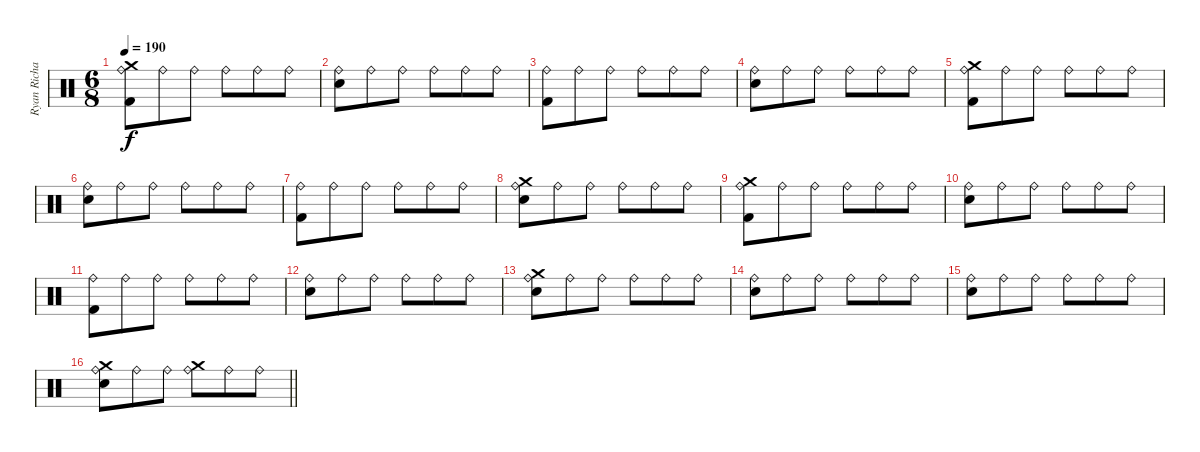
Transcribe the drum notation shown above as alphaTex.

\track ("Ryan Richards" "Ryan Richa") {instrument percussion bank 127}
\staff {score}
\articulation defaults
\ts (6 8)
\tempo 190
\clef neutral
\ks c
("Crash medium (hit)" "Ride (bell)" "Kick (hit) 2").8{dy f} "Ride (bell)".8 "Ride (bell)".8 "Ride (bell)".8 "Ride (bell)".8 "Ride (bell)".8 |
("Ride (bell)" "Snare (hit) 2").8 "Ride (bell)".8 "Ride (bell)".8 "Ride (bell)".8 "Ride (bell)".8 "Ride (bell)".8 |
("Ride (bell)" "Kick (hit) 2").8 "Ride (bell)".8 "Ride (bell)".8 "Ride (bell)".8 "Ride (bell)".8 "Ride (bell)".8 |
("Ride (bell)" "Snare (hit) 2").8 "Ride (bell)".8 "Ride (bell)".8 "Ride (bell)".8 "Ride (bell)".8 "Ride (bell)".8 |
("Crash medium (hit)" "Ride (bell)" "Kick (hit) 2").8 "Ride (bell)".8 "Ride (bell)".8 "Ride (bell)".8 "Ride (bell)".8 "Ride (bell)".8 |
("Ride (bell)" "Snare (hit) 2").8 "Ride (bell)".8 "Ride (bell)".8 "Ride (bell)".8 "Ride (bell)".8 "Ride (bell)".8 |
("Ride (bell)" "Kick (hit) 2").8 "Ride (bell)".8 "Ride (bell)".8 "Ride (bell)".8 "Ride (bell)".8 "Ride (bell)".8 |
("Crash medium (hit)" "Ride (bell)" "Snare (hit) 2").8 "Ride (bell)".8 "Ride (bell)".8 "Ride (bell)".8 "Ride (bell)".8 "Ride (bell)".8 |
("Crash medium (hit)" "Ride (bell)" "Kick (hit) 2").8 "Ride (bell)".8 "Ride (bell)".8 "Ride (bell)".8 "Ride (bell)".8 "Ride (bell)".8 |
("Ride (bell)" "Snare (hit) 2").8 "Ride (bell)".8 "Ride (bell)".8 "Ride (bell)".8 "Ride (bell)".8 "Ride (bell)".8 |
("Ride (bell)" "Kick (hit) 2").8 "Ride (bell)".8 "Ride (bell)".8 "Ride (bell)".8 "Ride (bell)".8 "Ride (bell)".8 |
("Ride (bell)" "Snare (hit) 2").8 "Ride (bell)".8 "Ride (bell)".8 "Ride (bell)".8 "Ride (bell)".8 "Ride (bell)".8 |
("Crash medium (hit)" "Ride (bell)" "Snare (hit) 2").8 "Ride (bell)".8 "Ride (bell)".8 "Ride (bell)".8 "Ride (bell)".8 "Ride (bell)".8 |
("Ride (bell)" "Snare (hit) 2").8 "Ride (bell)".8 "Ride (bell)".8 "Ride (bell)".8 "Ride (bell)".8 "Ride (bell)".8 |
("Ride (bell)" "Snare (hit) 2").8 "Ride (bell)".8 "Ride (bell)".8 "Ride (bell)".8 "Ride (bell)".8 "Ride (bell)".8 |
\barLineRight lightlight
("Crash medium (hit)" "Ride (bell)" "Snare (hit) 2").8 "Ride (bell)".8 "Ride (bell)".8 ("Crash medium (hit)" "Ride (bell)").8 "Ride (bell)".8 "Ride (bell)".8
